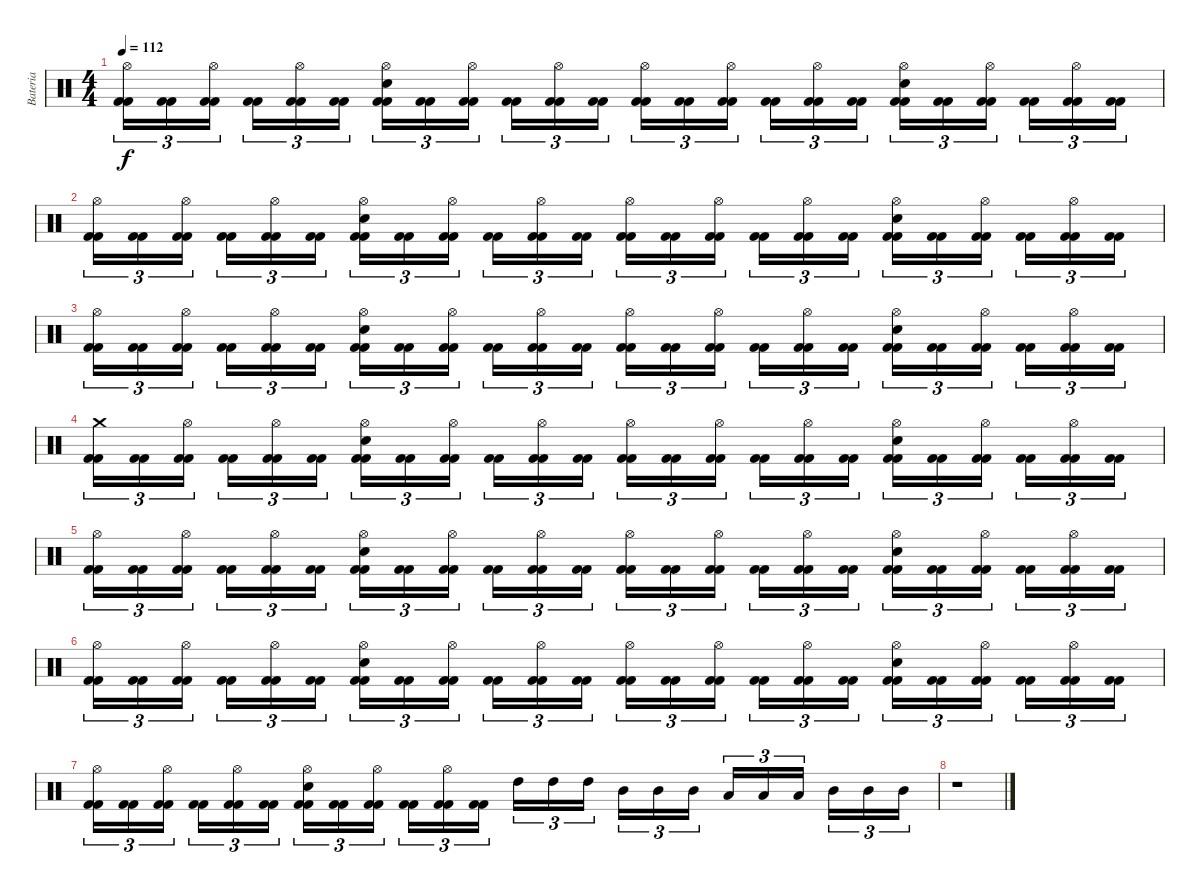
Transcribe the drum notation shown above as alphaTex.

\track ("Bateria" "Bateria") {instrument percussion}
\staff {score}
\articulation defaults
\ts (4 4)
\tempo 112
\clef neutral
\ks c
("Kick (hit) 2" "Kick (hit) 2" "Hi-Hat (open)").16{tu (3 2) dy f} ("Kick (hit) 2" "Kick (hit) 2").16{tu (3 2)} ("Kick (hit) 2" "Kick (hit) 2" "Hi-Hat (open)").16{tu (3 2)} ("Kick (hit) 2" "Kick (hit) 2").16{tu (3 2)} ("Kick (hit) 2" "Kick (hit) 2" "Hi-Hat (open)").16{tu (3 2)} ("Kick (hit) 2" "Kick (hit) 2").16{tu (3 2)} ("Kick (hit) 2" "Kick (hit) 2" "Snare (hit) 2" "Hi-Hat (open)").16{tu (3 2)} ("Kick (hit) 2" "Kick (hit) 2").16{tu (3 2)} ("Kick (hit) 2" "Kick (hit) 2" "Hi-Hat (open)").16{tu (3 2)} ("Kick (hit) 2" "Kick (hit) 2").16{tu (3 2)} ("Kick (hit) 2" "Kick (hit) 2" "Hi-Hat (open)").16{tu (3 2)} ("Kick (hit) 2" "Kick (hit) 2").16{tu (3 2)} ("Kick (hit) 2" "Kick (hit) 2" "Hi-Hat (open)").16{tu (3 2)} ("Kick (hit) 2" "Kick (hit) 2").16{tu (3 2)} ("Kick (hit) 2" "Kick (hit) 2" "Hi-Hat (open)").16{tu (3 2)} ("Kick (hit) 2" "Kick (hit) 2").16{tu (3 2)} ("Kick (hit) 2" "Kick (hit) 2" "Hi-Hat (open)").16{tu (3 2)} ("Kick (hit) 2" "Kick (hit) 2").16{tu (3 2)} ("Kick (hit) 2" "Kick (hit) 2" "Snare (hit) 2" "Hi-Hat (open)").16{tu (3 2)} ("Kick (hit) 2" "Kick (hit) 2").16{tu (3 2)} ("Kick (hit) 2" "Kick (hit) 2" "Hi-Hat (open)").16{tu (3 2)} ("Kick (hit) 2" "Kick (hit) 2").16{tu (3 2)} ("Kick (hit) 2" "Kick (hit) 2" "Hi-Hat (open)").16{tu (3 2)} ("Kick (hit) 2" "Kick (hit) 2").16{tu (3 2)} |
("Kick (hit) 2" "Kick (hit) 2" "Hi-Hat (open)").16{tu (3 2)} ("Kick (hit) 2" "Kick (hit) 2").16{tu (3 2)} ("Kick (hit) 2" "Kick (hit) 2" "Hi-Hat (open)").16{tu (3 2)} ("Kick (hit) 2" "Kick (hit) 2").16{tu (3 2)} ("Kick (hit) 2" "Kick (hit) 2" "Hi-Hat (open)").16{tu (3 2)} ("Kick (hit) 2" "Kick (hit) 2").16{tu (3 2)} ("Kick (hit) 2" "Kick (hit) 2" "Snare (hit) 2" "Hi-Hat (open)").16{tu (3 2)} ("Kick (hit) 2" "Kick (hit) 2").16{tu (3 2)} ("Kick (hit) 2" "Kick (hit) 2" "Hi-Hat (open)").16{tu (3 2)} ("Kick (hit) 2" "Kick (hit) 2").16{tu (3 2)} ("Kick (hit) 2" "Kick (hit) 2" "Hi-Hat (open)").16{tu (3 2)} ("Kick (hit) 2" "Kick (hit) 2").16{tu (3 2)} ("Kick (hit) 2" "Kick (hit) 2" "Hi-Hat (open)").16{tu (3 2)} ("Kick (hit) 2" "Kick (hit) 2").16{tu (3 2)} ("Kick (hit) 2" "Kick (hit) 2" "Hi-Hat (open)").16{tu (3 2)} ("Kick (hit) 2" "Kick (hit) 2").16{tu (3 2)} ("Kick (hit) 2" "Kick (hit) 2" "Hi-Hat (open)").16{tu (3 2)} ("Kick (hit) 2" "Kick (hit) 2").16{tu (3 2)} ("Kick (hit) 2" "Kick (hit) 2" "Snare (hit) 2" "Hi-Hat (open)").16{tu (3 2)} ("Kick (hit) 2" "Kick (hit) 2").16{tu (3 2)} ("Kick (hit) 2" "Kick (hit) 2" "Hi-Hat (open)").16{tu (3 2)} ("Kick (hit) 2" "Kick (hit) 2").16{tu (3 2)} ("Kick (hit) 2" "Kick (hit) 2" "Hi-Hat (open)").16{tu (3 2)} ("Kick (hit) 2" "Kick (hit) 2").16{tu (3 2)} |
("Kick (hit) 2" "Kick (hit) 2" "Hi-Hat (open)").16{tu (3 2)} ("Kick (hit) 2" "Kick (hit) 2").16{tu (3 2)} ("Kick (hit) 2" "Kick (hit) 2" "Hi-Hat (open)").16{tu (3 2)} ("Kick (hit) 2" "Kick (hit) 2").16{tu (3 2)} ("Kick (hit) 2" "Kick (hit) 2" "Hi-Hat (open)").16{tu (3 2)} ("Kick (hit) 2" "Kick (hit) 2").16{tu (3 2)} ("Kick (hit) 2" "Kick (hit) 2" "Snare (hit) 2" "Hi-Hat (open)").16{tu (3 2)} ("Kick (hit) 2" "Kick (hit) 2").16{tu (3 2)} ("Kick (hit) 2" "Kick (hit) 2" "Hi-Hat (open)").16{tu (3 2)} ("Kick (hit) 2" "Kick (hit) 2").16{tu (3 2)} ("Kick (hit) 2" "Kick (hit) 2" "Hi-Hat (open)").16{tu (3 2)} ("Kick (hit) 2" "Kick (hit) 2").16{tu (3 2)} ("Kick (hit) 2" "Kick (hit) 2" "Hi-Hat (open)").16{tu (3 2)} ("Kick (hit) 2" "Kick (hit) 2").16{tu (3 2)} ("Kick (hit) 2" "Kick (hit) 2" "Hi-Hat (open)").16{tu (3 2)} ("Kick (hit) 2" "Kick (hit) 2").16{tu (3 2)} ("Kick (hit) 2" "Kick (hit) 2" "Hi-Hat (open)").16{tu (3 2)} ("Kick (hit) 2" "Kick (hit) 2").16{tu (3 2)} ("Kick (hit) 2" "Kick (hit) 2" "Snare (hit) 2" "Hi-Hat (open)").16{tu (3 2)} ("Kick (hit) 2" "Kick (hit) 2").16{tu (3 2)} ("Kick (hit) 2" "Kick (hit) 2" "Hi-Hat (open)").16{tu (3 2)} ("Kick (hit) 2" "Kick (hit) 2").16{tu (3 2)} ("Kick (hit) 2" "Kick (hit) 2" "Hi-Hat (open)").16{tu (3 2)} ("Kick (hit) 2" "Kick (hit) 2").16{tu (3 2)} |
("Kick (hit) 2" "Kick (hit) 2" "Crash medium (hit)").16{tu (3 2) volume 0} ("Kick (hit) 2" "Kick (hit) 2").16{tu (3 2)} ("Kick (hit) 2" "Kick (hit) 2" "Hi-Hat (open)").16{tu (3 2)} ("Kick (hit) 2" "Kick (hit) 2").16{tu (3 2)} ("Kick (hit) 2" "Kick (hit) 2" "Hi-Hat (open)").16{tu (3 2)} ("Kick (hit) 2" "Kick (hit) 2").16{tu (3 2)} ("Kick (hit) 2" "Kick (hit) 2" "Snare (hit) 2" "Hi-Hat (open)").16{tu (3 2)} ("Kick (hit) 2" "Kick (hit) 2").16{tu (3 2)} ("Kick (hit) 2" "Kick (hit) 2" "Hi-Hat (open)").16{tu (3 2)} ("Kick (hit) 2" "Kick (hit) 2").16{tu (3 2)} ("Kick (hit) 2" "Kick (hit) 2" "Hi-Hat (open)").16{tu (3 2)} ("Kick (hit) 2" "Kick (hit) 2").16{tu (3 2)} ("Kick (hit) 2" "Kick (hit) 2" "Hi-Hat (open)").16{tu (3 2)} ("Kick (hit) 2" "Kick (hit) 2").16{tu (3 2)} ("Kick (hit) 2" "Kick (hit) 2" "Hi-Hat (open)").16{tu (3 2)} ("Kick (hit) 2" "Kick (hit) 2").16{tu (3 2)} ("Kick (hit) 2" "Kick (hit) 2" "Hi-Hat (open)").16{tu (3 2)} ("Kick (hit) 2" "Kick (hit) 2").16{tu (3 2)} ("Kick (hit) 2" "Kick (hit) 2" "Snare (hit) 2" "Hi-Hat (open)").16{tu (3 2)} ("Kick (hit) 2" "Kick (hit) 2").16{tu (3 2)} ("Kick (hit) 2" "Kick (hit) 2" "Hi-Hat (open)").16{tu (3 2)} ("Kick (hit) 2" "Kick (hit) 2").16{tu (3 2)} ("Kick (hit) 2" "Kick (hit) 2" "Hi-Hat (open)").16{tu (3 2)} ("Kick (hit) 2" "Kick (hit) 2").16{tu (3 2)} |
("Kick (hit) 2" "Kick (hit) 2" "Hi-Hat (open)").16{tu (3 2)} ("Kick (hit) 2" "Kick (hit) 2").16{tu (3 2)} ("Kick (hit) 2" "Kick (hit) 2" "Hi-Hat (open)").16{tu (3 2)} ("Kick (hit) 2" "Kick (hit) 2").16{tu (3 2)} ("Kick (hit) 2" "Kick (hit) 2" "Hi-Hat (open)").16{tu (3 2)} ("Kick (hit) 2" "Kick (hit) 2").16{tu (3 2)} ("Kick (hit) 2" "Kick (hit) 2" "Snare (hit) 2" "Hi-Hat (open)").16{tu (3 2)} ("Kick (hit) 2" "Kick (hit) 2").16{tu (3 2)} ("Kick (hit) 2" "Kick (hit) 2" "Hi-Hat (open)").16{tu (3 2)} ("Kick (hit) 2" "Kick (hit) 2").16{tu (3 2)} ("Kick (hit) 2" "Kick (hit) 2" "Hi-Hat (open)").16{tu (3 2)} ("Kick (hit) 2" "Kick (hit) 2").16{tu (3 2)} ("Kick (hit) 2" "Kick (hit) 2" "Hi-Hat (open)").16{tu (3 2)} ("Kick (hit) 2" "Kick (hit) 2").16{tu (3 2)} ("Kick (hit) 2" "Kick (hit) 2" "Hi-Hat (open)").16{tu (3 2)} ("Kick (hit) 2" "Kick (hit) 2").16{tu (3 2)} ("Kick (hit) 2" "Kick (hit) 2" "Hi-Hat (open)").16{tu (3 2)} ("Kick (hit) 2" "Kick (hit) 2").16{tu (3 2)} ("Kick (hit) 2" "Kick (hit) 2" "Snare (hit) 2" "Hi-Hat (open)").16{tu (3 2)} ("Kick (hit) 2" "Kick (hit) 2").16{tu (3 2)} ("Kick (hit) 2" "Kick (hit) 2" "Hi-Hat (open)").16{tu (3 2)} ("Kick (hit) 2" "Kick (hit) 2").16{tu (3 2)} ("Kick (hit) 2" "Kick (hit) 2" "Hi-Hat (open)").16{tu (3 2)} ("Kick (hit) 2" "Kick (hit) 2").16{tu (3 2)} |
("Kick (hit) 2" "Kick (hit) 2" "Hi-Hat (open)").16{tu (3 2)} ("Kick (hit) 2" "Kick (hit) 2").16{tu (3 2)} ("Kick (hit) 2" "Kick (hit) 2" "Hi-Hat (open)").16{tu (3 2)} ("Kick (hit) 2" "Kick (hit) 2").16{tu (3 2)} ("Kick (hit) 2" "Kick (hit) 2" "Hi-Hat (open)").16{tu (3 2)} ("Kick (hit) 2" "Kick (hit) 2").16{tu (3 2)} ("Kick (hit) 2" "Kick (hit) 2" "Snare (hit) 2" "Hi-Hat (open)").16{tu (3 2)} ("Kick (hit) 2" "Kick (hit) 2").16{tu (3 2)} ("Kick (hit) 2" "Kick (hit) 2" "Hi-Hat (open)").16{tu (3 2)} ("Kick (hit) 2" "Kick (hit) 2").16{tu (3 2)} ("Kick (hit) 2" "Kick (hit) 2" "Hi-Hat (open)").16{tu (3 2)} ("Kick (hit) 2" "Kick (hit) 2").16{tu (3 2)} ("Kick (hit) 2" "Kick (hit) 2" "Hi-Hat (open)").16{tu (3 2)} ("Kick (hit) 2" "Kick (hit) 2").16{tu (3 2)} ("Kick (hit) 2" "Kick (hit) 2" "Hi-Hat (open)").16{tu (3 2)} ("Kick (hit) 2" "Kick (hit) 2").16{tu (3 2)} ("Kick (hit) 2" "Kick (hit) 2" "Hi-Hat (open)").16{tu (3 2)} ("Kick (hit) 2" "Kick (hit) 2").16{tu (3 2)} ("Kick (hit) 2" "Kick (hit) 2" "Snare (hit) 2" "Hi-Hat (open)").16{tu (3 2)} ("Kick (hit) 2" "Kick (hit) 2").16{tu (3 2)} ("Kick (hit) 2" "Kick (hit) 2" "Hi-Hat (open)").16{tu (3 2)} ("Kick (hit) 2" "Kick (hit) 2").16{tu (3 2)} ("Kick (hit) 2" "Kick (hit) 2" "Hi-Hat (open)").16{tu (3 2)} ("Kick (hit) 2" "Kick (hit) 2").16{tu (3 2)} |
("Kick (hit) 2" "Kick (hit) 2" "Hi-Hat (open)").16{tu (3 2)} ("Kick (hit) 2" "Kick (hit) 2").16{tu (3 2)} ("Kick (hit) 2" "Kick (hit) 2" "Hi-Hat (open)").16{tu (3 2)} ("Kick (hit) 2" "Kick (hit) 2").16{tu (3 2)} ("Kick (hit) 2" "Kick (hit) 2" "Hi-Hat (open)").16{tu (3 2)} ("Kick (hit) 2" "Kick (hit) 2").16{tu (3 2)} ("Kick (hit) 2" "Kick (hit) 2" "Snare (hit) 2" "Hi-Hat (open)").16{tu (3 2)} ("Kick (hit) 2" "Kick (hit) 2").16{tu (3 2)} ("Kick (hit) 2" "Kick (hit) 2" "Hi-Hat (open)").16{tu (3 2)} ("Kick (hit) 2" "Kick (hit) 2").16{tu (3 2)} ("Kick (hit) 2" "Kick (hit) 2" "Hi-Hat (open)").16{tu (3 2)} ("Kick (hit) 2" "Kick (hit) 2").16{tu (3 2)} "High Tom (hit)".16{tu (3 2)} "High Tom (hit)".16{tu (3 2)} "High Tom (hit)".16{tu (3 2)} "Mid Tom (hit)".16{tu (3 2)} "Mid Tom (hit)".16{tu (3 2)} "Mid Tom (hit)".16{tu (3 2)} "Low Tom (hit)".16{tu (3 2)} "Low Tom (hit)".16{tu (3 2)} "Low Tom (hit)".16{tu (3 2)} "Mid Tom (hit)".16{tu (3 2)} "Mid Tom (hit)".16{tu (3 2)} "Mid Tom (hit)".16{tu (3 2)} |
r.1
